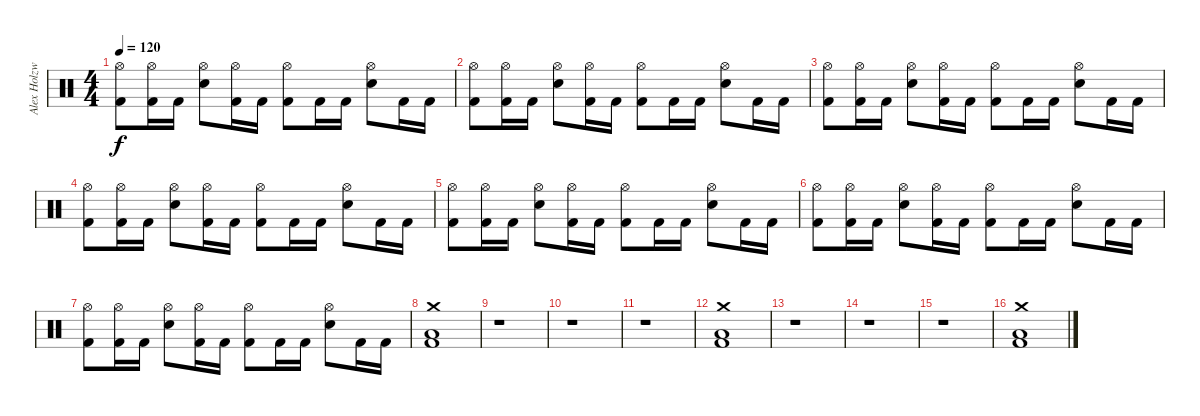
\track ("Alex Holzwarth - Drums" "Alex Holzw") {instrument percussion}
\staff {score}
\articulation defaults
\ts (4 4)
\tempo 120
\clef neutral
\ks c
("Hi-Hat (open)" "Kick (hit) 2").8{dy f} ("Hi-Hat (open)" "Kick (hit) 2").16 "Kick (hit) 2".16 ("Hi-Hat (open)" "Electric Snare (hit)").8 ("Hi-Hat (open)" "Kick (hit) 2").16 "Kick (hit) 2".16 ("Hi-Hat (open)" "Kick (hit) 2").8 "Kick (hit) 2".16 "Kick (hit) 2".16 ("Hi-Hat (open)" "Electric Snare (hit)").8 "Kick (hit) 2".16 "Kick (hit) 2".16 |
("Hi-Hat (open)" "Kick (hit) 2").8 ("Hi-Hat (open)" "Kick (hit) 2").16 "Kick (hit) 2".16 ("Hi-Hat (open)" "Electric Snare (hit)").8 ("Hi-Hat (open)" "Kick (hit) 2").16 "Kick (hit) 2".16 ("Hi-Hat (open)" "Kick (hit) 2").8 "Kick (hit) 2".16 "Kick (hit) 2".16 ("Hi-Hat (open)" "Electric Snare (hit)").8 "Kick (hit) 2".16 "Kick (hit) 2".16 |
("Hi-Hat (open)" "Kick (hit) 2").8 ("Hi-Hat (open)" "Kick (hit) 2").16 "Kick (hit) 2".16 ("Hi-Hat (open)" "Electric Snare (hit)").8 ("Hi-Hat (open)" "Kick (hit) 2").16 "Kick (hit) 2".16 ("Hi-Hat (open)" "Kick (hit) 2").8 "Kick (hit) 2".16 "Kick (hit) 2".16 ("Hi-Hat (open)" "Electric Snare (hit)").8 "Kick (hit) 2".16 "Kick (hit) 2".16 |
("Hi-Hat (open)" "Kick (hit) 2").8 ("Hi-Hat (open)" "Kick (hit) 2").16 "Kick (hit) 2".16 ("Hi-Hat (open)" "Electric Snare (hit)").8 ("Hi-Hat (open)" "Kick (hit) 2").16 "Kick (hit) 2".16 ("Hi-Hat (open)" "Kick (hit) 2").8 "Kick (hit) 2".16 "Kick (hit) 2".16 ("Hi-Hat (open)" "Electric Snare (hit)").8 "Kick (hit) 2".16 "Kick (hit) 2".16 |
("Hi-Hat (open)" "Kick (hit) 2").8 ("Hi-Hat (open)" "Kick (hit) 2").16 "Kick (hit) 2".16 ("Hi-Hat (open)" "Electric Snare (hit)").8 ("Hi-Hat (open)" "Kick (hit) 2").16 "Kick (hit) 2".16 ("Hi-Hat (open)" "Kick (hit) 2").8 "Kick (hit) 2".16 "Kick (hit) 2".16 ("Hi-Hat (open)" "Electric Snare (hit)").8 "Kick (hit) 2".16 "Kick (hit) 2".16 |
("Hi-Hat (open)" "Kick (hit) 2").8 ("Hi-Hat (open)" "Kick (hit) 2").16 "Kick (hit) 2".16 ("Hi-Hat (open)" "Electric Snare (hit)").8 ("Hi-Hat (open)" "Kick (hit) 2").16 "Kick (hit) 2".16 ("Hi-Hat (open)" "Kick (hit) 2").8 "Kick (hit) 2".16 "Kick (hit) 2".16 ("Hi-Hat (open)" "Electric Snare (hit)").8 "Kick (hit) 2".16 "Kick (hit) 2".16 |
("Hi-Hat (open)" "Kick (hit) 2").8 ("Hi-Hat (open)" "Kick (hit) 2").16 "Kick (hit) 2".16 ("Hi-Hat (open)" "Electric Snare (hit)").8 ("Hi-Hat (open)" "Kick (hit) 2").16 "Kick (hit) 2".16 ("Hi-Hat (open)" "Kick (hit) 2").8 "Kick (hit) 2".16 "Kick (hit) 2".16 ("Hi-Hat (open)" "Electric Snare (hit)").8 "Kick (hit) 2".16 "Kick (hit) 2".16 |
("Crash medium (hit)" "Low Floor Tom (hit)" "Kick (hit) 2").1 |
r.1 |
r.1 |
r.1 |
("Crash medium (hit)" "Low Floor Tom (hit)" "Kick (hit) 2").1 |
r.1 |
r.1 |
r.1 |
("Crash medium (hit)" "Low Floor Tom (hit)" "Kick (hit) 2").1
